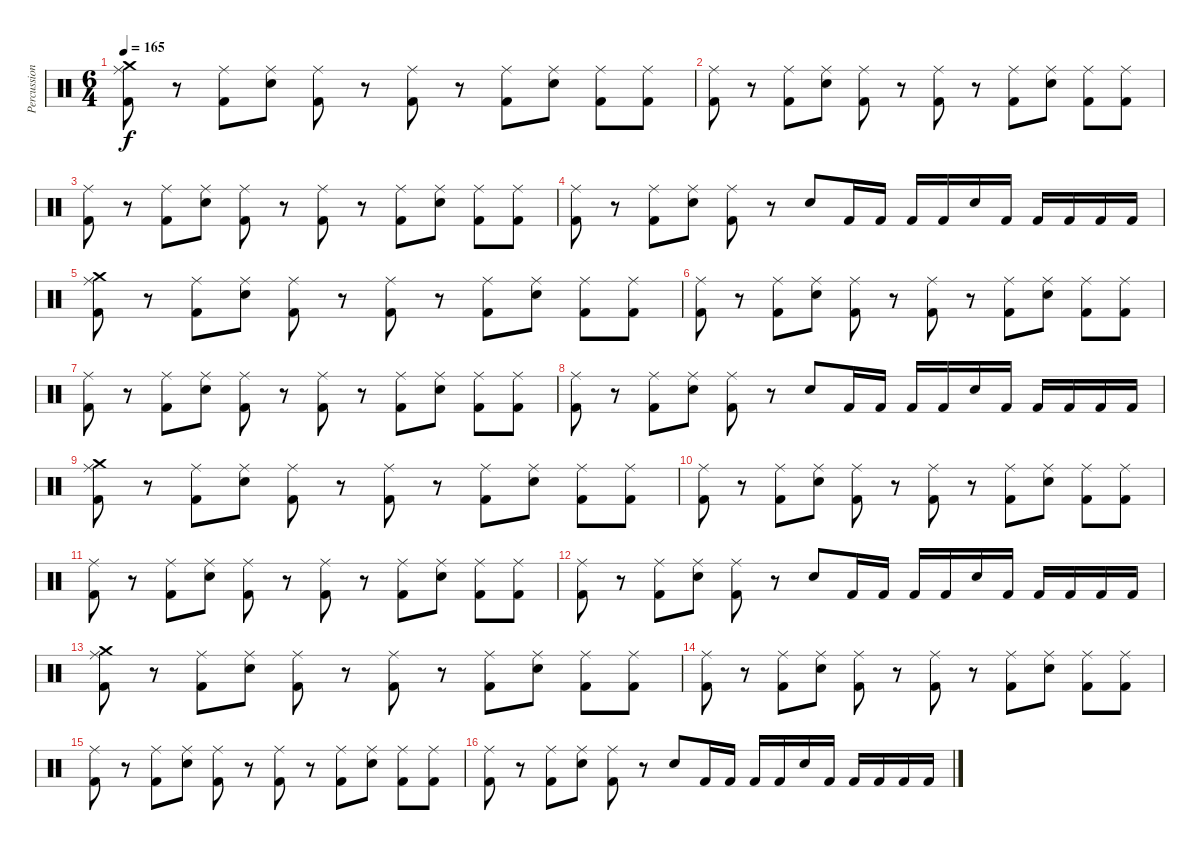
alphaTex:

\track ("Percussion" "Percussion") {instrument percussion}
\staff {score}
\articulation defaults
\ts (6 4)
\tempo 165
\clef neutral
\ks c
("Crash medium (hit)" "Ride (middle)" "Kick (hit) 2").8{dy f} r.8 ("Ride (middle)" "Kick (hit) 2").8 ("Ride (middle)" "Electric Snare (hit)").8 ("Ride (middle)" "Kick (hit) 2").8 r.8 ("Ride (middle)" "Kick (hit) 2").8 r.8 ("Ride (middle)" "Kick (hit) 2").8 ("Ride (middle)" "Electric Snare (hit)").8 ("Ride (middle)" "Kick (hit) 2").8 ("Ride (middle)" "Kick (hit) 2").8 |
("Ride (middle)" "Kick (hit) 2").8 r.8 ("Ride (middle)" "Kick (hit) 2").8 ("Ride (middle)" "Electric Snare (hit)").8 ("Ride (middle)" "Kick (hit) 2").8 r.8 ("Ride (middle)" "Kick (hit) 2").8 r.8 ("Ride (middle)" "Kick (hit) 2").8 ("Ride (middle)" "Electric Snare (hit)").8 ("Ride (middle)" "Kick (hit) 2").8 ("Ride (middle)" "Kick (hit) 2").8 |
("Ride (middle)" "Kick (hit) 2").8 r.8 ("Ride (middle)" "Kick (hit) 2").8 ("Ride (middle)" "Electric Snare (hit)").8 ("Ride (middle)" "Kick (hit) 2").8 r.8 ("Ride (middle)" "Kick (hit) 2").8 r.8 ("Ride (middle)" "Kick (hit) 2").8 ("Ride (middle)" "Electric Snare (hit)").8 ("Ride (middle)" "Kick (hit) 2").8 ("Ride (middle)" "Kick (hit) 2").8 |
("Ride (middle)" "Kick (hit) 2").8 r.8 ("Ride (middle)" "Kick (hit) 2").8 ("Ride (middle)" "Electric Snare (hit)").8 ("Ride (middle)" "Kick (hit) 2").8 r.8 "Electric Snare (hit)".8 "Kick (hit) 2".16 "Kick (hit) 2".16 "Kick (hit) 2".16 "Kick (hit) 2".16 "Electric Snare (hit)".16 "Kick (hit) 2".16 "Kick (hit) 2".16 "Kick (hit) 2".16 "Kick (hit) 2".16 "Kick (hit) 2".16 |
("Crash medium (hit)" "Ride (middle)" "Kick (hit) 2").8 r.8 ("Ride (middle)" "Kick (hit) 2").8 ("Ride (middle)" "Electric Snare (hit)").8 ("Ride (middle)" "Kick (hit) 2").8 r.8 ("Ride (middle)" "Kick (hit) 2").8 r.8 ("Ride (middle)" "Kick (hit) 2").8 ("Ride (middle)" "Electric Snare (hit)").8 ("Ride (middle)" "Kick (hit) 2").8 ("Ride (middle)" "Kick (hit) 2").8 |
("Ride (middle)" "Kick (hit) 2").8 r.8 ("Ride (middle)" "Kick (hit) 2").8 ("Ride (middle)" "Electric Snare (hit)").8 ("Ride (middle)" "Kick (hit) 2").8 r.8 ("Ride (middle)" "Kick (hit) 2").8 r.8 ("Ride (middle)" "Kick (hit) 2").8 ("Ride (middle)" "Electric Snare (hit)").8 ("Ride (middle)" "Kick (hit) 2").8 ("Ride (middle)" "Kick (hit) 2").8 |
("Ride (middle)" "Kick (hit) 2").8 r.8 ("Ride (middle)" "Kick (hit) 2").8 ("Ride (middle)" "Electric Snare (hit)").8 ("Ride (middle)" "Kick (hit) 2").8 r.8 ("Ride (middle)" "Kick (hit) 2").8 r.8 ("Ride (middle)" "Kick (hit) 2").8 ("Ride (middle)" "Electric Snare (hit)").8 ("Ride (middle)" "Kick (hit) 2").8 ("Ride (middle)" "Kick (hit) 2").8 |
("Ride (middle)" "Kick (hit) 2").8 r.8 ("Ride (middle)" "Kick (hit) 2").8 ("Ride (middle)" "Electric Snare (hit)").8 ("Ride (middle)" "Kick (hit) 2").8 r.8 "Electric Snare (hit)".8 "Kick (hit) 2".16 "Kick (hit) 2".16 "Kick (hit) 2".16 "Kick (hit) 2".16 "Electric Snare (hit)".16 "Kick (hit) 2".16 "Kick (hit) 2".16 "Kick (hit) 2".16 "Kick (hit) 2".16 "Kick (hit) 2".16 |
("Crash medium (hit)" "Ride (middle)" "Kick (hit) 2").8 r.8 ("Ride (middle)" "Kick (hit) 2").8 ("Ride (middle)" "Electric Snare (hit)").8 ("Ride (middle)" "Kick (hit) 2").8 r.8 ("Ride (middle)" "Kick (hit) 2").8 r.8 ("Ride (middle)" "Kick (hit) 2").8 ("Ride (middle)" "Electric Snare (hit)").8 ("Ride (middle)" "Kick (hit) 2").8 ("Ride (middle)" "Kick (hit) 2").8 |
("Ride (middle)" "Kick (hit) 2").8 r.8 ("Ride (middle)" "Kick (hit) 2").8 ("Ride (middle)" "Electric Snare (hit)").8 ("Ride (middle)" "Kick (hit) 2").8 r.8 ("Ride (middle)" "Kick (hit) 2").8 r.8 ("Ride (middle)" "Kick (hit) 2").8 ("Ride (middle)" "Electric Snare (hit)").8 ("Ride (middle)" "Kick (hit) 2").8 ("Ride (middle)" "Kick (hit) 2").8 |
("Ride (middle)" "Kick (hit) 2").8 r.8 ("Ride (middle)" "Kick (hit) 2").8 ("Ride (middle)" "Electric Snare (hit)").8 ("Ride (middle)" "Kick (hit) 2").8 r.8 ("Ride (middle)" "Kick (hit) 2").8 r.8 ("Ride (middle)" "Kick (hit) 2").8 ("Ride (middle)" "Electric Snare (hit)").8 ("Ride (middle)" "Kick (hit) 2").8 ("Ride (middle)" "Kick (hit) 2").8 |
("Ride (middle)" "Kick (hit) 2").8 r.8 ("Ride (middle)" "Kick (hit) 2").8 ("Ride (middle)" "Electric Snare (hit)").8 ("Ride (middle)" "Kick (hit) 2").8 r.8 "Electric Snare (hit)".8 "Kick (hit) 2".16 "Kick (hit) 2".16 "Kick (hit) 2".16 "Kick (hit) 2".16 "Electric Snare (hit)".16 "Kick (hit) 2".16 "Kick (hit) 2".16 "Kick (hit) 2".16 "Kick (hit) 2".16 "Kick (hit) 2".16 |
("Crash medium (hit)" "Ride (middle)" "Kick (hit) 2").8 r.8 ("Ride (middle)" "Kick (hit) 2").8 ("Ride (middle)" "Electric Snare (hit)").8 ("Ride (middle)" "Kick (hit) 2").8 r.8 ("Ride (middle)" "Kick (hit) 2").8 r.8 ("Ride (middle)" "Kick (hit) 2").8 ("Ride (middle)" "Electric Snare (hit)").8 ("Ride (middle)" "Kick (hit) 2").8 ("Ride (middle)" "Kick (hit) 2").8 |
("Ride (middle)" "Kick (hit) 2").8 r.8 ("Ride (middle)" "Kick (hit) 2").8 ("Ride (middle)" "Electric Snare (hit)").8 ("Ride (middle)" "Kick (hit) 2").8 r.8 ("Ride (middle)" "Kick (hit) 2").8 r.8 ("Ride (middle)" "Kick (hit) 2").8 ("Ride (middle)" "Electric Snare (hit)").8 ("Ride (middle)" "Kick (hit) 2").8 ("Ride (middle)" "Kick (hit) 2").8 |
("Ride (middle)" "Kick (hit) 2").8 r.8 ("Ride (middle)" "Kick (hit) 2").8 ("Ride (middle)" "Electric Snare (hit)").8 ("Ride (middle)" "Kick (hit) 2").8 r.8 ("Ride (middle)" "Kick (hit) 2").8 r.8 ("Ride (middle)" "Kick (hit) 2").8 ("Ride (middle)" "Electric Snare (hit)").8 ("Ride (middle)" "Kick (hit) 2").8 ("Ride (middle)" "Kick (hit) 2").8 |
("Ride (middle)" "Kick (hit) 2").8 r.8 ("Ride (middle)" "Kick (hit) 2").8 ("Ride (middle)" "Electric Snare (hit)").8 ("Ride (middle)" "Kick (hit) 2").8 r.8 "Electric Snare (hit)".8 "Kick (hit) 2".16 "Kick (hit) 2".16 "Kick (hit) 2".16 "Kick (hit) 2".16 "Electric Snare (hit)".16 "Kick (hit) 2".16 "Kick (hit) 2".16 "Kick (hit) 2".16 "Kick (hit) 2".16 "Kick (hit) 2".16
